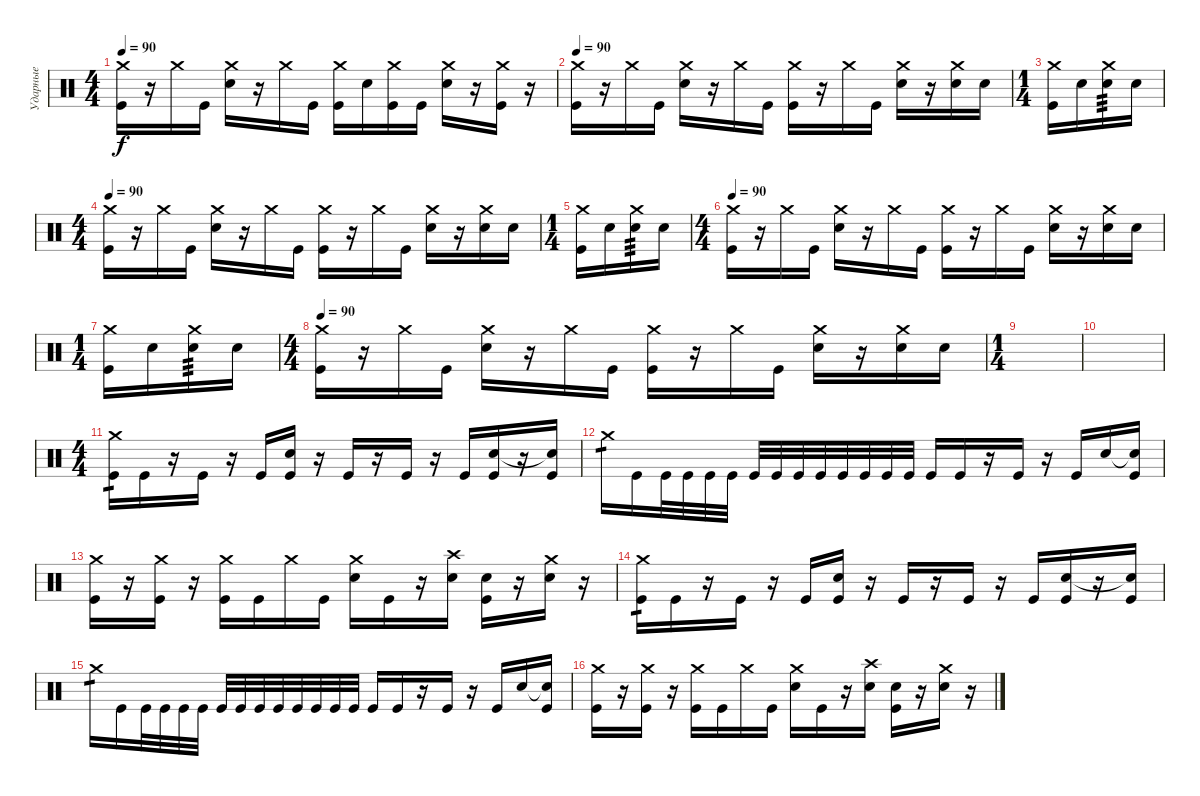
\track ("Ударные" "Ударные") {instrument percussion}
\staff {score}
\articulation defaults
\ts (4 4)
\tempo 90
\clef neutral
\ks c
("Crash medium (hit)" "Kick (hit)").16{dy f} r.16 "Crash medium (hit)".16 "Kick (hit)".16 ("Crash medium (hit)" "Electric Snare (hit)").16 r.16 "Crash medium (hit)".16 "Kick (hit)".16 ("Crash medium (hit)" "Kick (hit)").16 "Electric Snare (hit)".16 ("Crash medium (hit)" "Kick (hit)").16 "Kick (hit)".16 ("Crash medium (hit)" "Electric Snare (hit)").16 r.16 ("Crash medium (hit)" "Kick (hit)").16 r.16 |
\tempo 90
("Crash medium (hit)" "Kick (hit)").16 r.16 "Crash medium (hit)".16 "Kick (hit)".16 ("Crash medium (hit)" "Electric Snare (hit)").16 r.16 "Crash medium (hit)".16 "Kick (hit)".16 ("Crash medium (hit)" "Kick (hit)").16 r.16 "Crash medium (hit)".16 "Kick (hit)".16 ("Crash medium (hit)" "Electric Snare (hit)").16 r.16 ("Crash medium (hit)" "Electric Snare (hit)").16 "Electric Snare (hit)".16 |
\ts (1 4)
("Crash medium (hit)" "Kick (hit)").16 "Electric Snare (hit)".16 ("Crash medium (hit)" "Electric Snare (hit)").16{tp 3} "Electric Snare (hit)".16 |
\ts (4 4)
\tempo 90
("Crash medium (hit)" "Kick (hit)").16 r.16 "Crash medium (hit)".16 "Kick (hit)".16 ("Crash medium (hit)" "Electric Snare (hit)").16 r.16 "Crash medium (hit)".16 "Kick (hit)".16 ("Crash medium (hit)" "Kick (hit)").16 r.16 "Crash medium (hit)".16 "Kick (hit)".16 ("Crash medium (hit)" "Electric Snare (hit)").16 r.16 ("Crash medium (hit)" "Electric Snare (hit)").16 "Electric Snare (hit)".16 |
\ts (1 4)
("Crash medium (hit)" "Kick (hit)").16 "Electric Snare (hit)".16 ("Crash medium (hit)" "Electric Snare (hit)").16{tp 3} "Electric Snare (hit)".16 |
\ts (4 4)
\tempo 90
("Crash medium (hit)" "Kick (hit)").16 r.16 "Crash medium (hit)".16 "Kick (hit)".16 ("Crash medium (hit)" "Electric Snare (hit)").16 r.16 "Crash medium (hit)".16 "Kick (hit)".16 ("Crash medium (hit)" "Kick (hit)").16 r.16 "Crash medium (hit)".16 "Kick (hit)".16 ("Crash medium (hit)" "Electric Snare (hit)").16 r.16 ("Crash medium (hit)" "Electric Snare (hit)").16 "Electric Snare (hit)".16 |
\ts (1 4)
("Crash medium (hit)" "Kick (hit)").16 "Electric Snare (hit)".16 ("Crash medium (hit)" "Electric Snare (hit)").16{tp 3} "Electric Snare (hit)".16 |
\ts (4 4)
\tempo 90
("Crash medium (hit)" "Kick (hit)").16 r.16 "Crash medium (hit)".16 "Kick (hit)".16 ("Crash medium (hit)" "Electric Snare (hit)").16 r.16 "Crash medium (hit)".16 "Kick (hit)".16 ("Crash medium (hit)" "Kick (hit)").16 r.16 "Crash medium (hit)".16 "Kick (hit)".16 ("Crash medium (hit)" "Electric Snare (hit)").16 r.16 ("Crash medium (hit)" "Electric Snare (hit)").16 "Electric Snare (hit)".16 |
\ts (1 4)
|
|
\ts (4 4)
("Crash medium (hit)" "Kick (hit)").16{tp 1} "Kick (hit)".16 r.16 "Kick (hit)".16 r.16 "Kick (hit)".16 ("Electric Snare (hit)" "Kick (hit)").16 r.16 "Kick (hit)".16 r.16 "Kick (hit)".16 r.16 "Kick (hit)".16 ("Electric Snare (hit)" "Kick (hit)").16 r.16 ("Snare (hit)"{t} "Kick (hit)").16 |
"Crash medium (hit)".16{tp 1} "Kick (hit)".16 "Kick (hit)".32 "Kick (hit)".32 "Kick (hit)".32 "Kick (hit)".32 "Kick (hit)".32 "Kick (hit)".32 "Kick (hit)".32 "Kick (hit)".32 "Kick (hit)".32 "Kick (hit)".32 "Kick (hit)".32 "Kick (hit)".32 "Kick (hit)".16 "Kick (hit)".16 r.16 "Kick (hit)".16 r.16 "Kick (hit)".16 "Electric Snare (hit)".16 ("Snare (hit)"{t} "Kick (hit)").16 |
("Crash medium (hit)" "Kick (hit)").16 r.16 ("Crash medium (hit)" "Kick (hit)").16 r.16 ("Crash medium (hit)" "Kick (hit)").16 "Kick (hit)".16 "Crash medium (hit)".16 "Kick (hit)".16 ("Crash medium (hit)" "Electric Snare (hit)").16 "Kick (hit)".16 r.16 ("Crash high (hit)" "Electric Snare (hit)").16 ("Electric Snare (hit)" "Kick (hit)").16 r.16 ("Crash medium (hit)" "Electric Snare (hit)").16 r.16 |
("Crash medium (hit)" "Kick (hit)").16{tp 1} "Kick (hit)".16 r.16 "Kick (hit)".16 r.16 "Kick (hit)".16 ("Electric Snare (hit)" "Kick (hit)").16 r.16 "Kick (hit)".16 r.16 "Kick (hit)".16 r.16 "Kick (hit)".16 ("Electric Snare (hit)" "Kick (hit)").16 r.16 ("Snare (hit)"{t} "Kick (hit)").16 |
"Crash medium (hit)".16{tp 1} "Kick (hit)".16 "Kick (hit)".32 "Kick (hit)".32 "Kick (hit)".32 "Kick (hit)".32 "Kick (hit)".32 "Kick (hit)".32 "Kick (hit)".32 "Kick (hit)".32 "Kick (hit)".32 "Kick (hit)".32 "Kick (hit)".32 "Kick (hit)".32 "Kick (hit)".16 "Kick (hit)".16 r.16 "Kick (hit)".16 r.16 "Kick (hit)".16 "Electric Snare (hit)".16 ("Snare (hit)"{t} "Kick (hit)").16 |
("Crash medium (hit)" "Kick (hit)").16 r.16 ("Crash medium (hit)" "Kick (hit)").16 r.16 ("Crash medium (hit)" "Kick (hit)").16 "Kick (hit)".16 "Crash medium (hit)".16 "Kick (hit)".16 ("Crash medium (hit)" "Electric Snare (hit)").16 "Kick (hit)".16 r.16 ("Crash high (hit)" "Electric Snare (hit)").16 ("Electric Snare (hit)" "Kick (hit)").16 r.16 ("Crash medium (hit)" "Electric Snare (hit)").16 r.16
